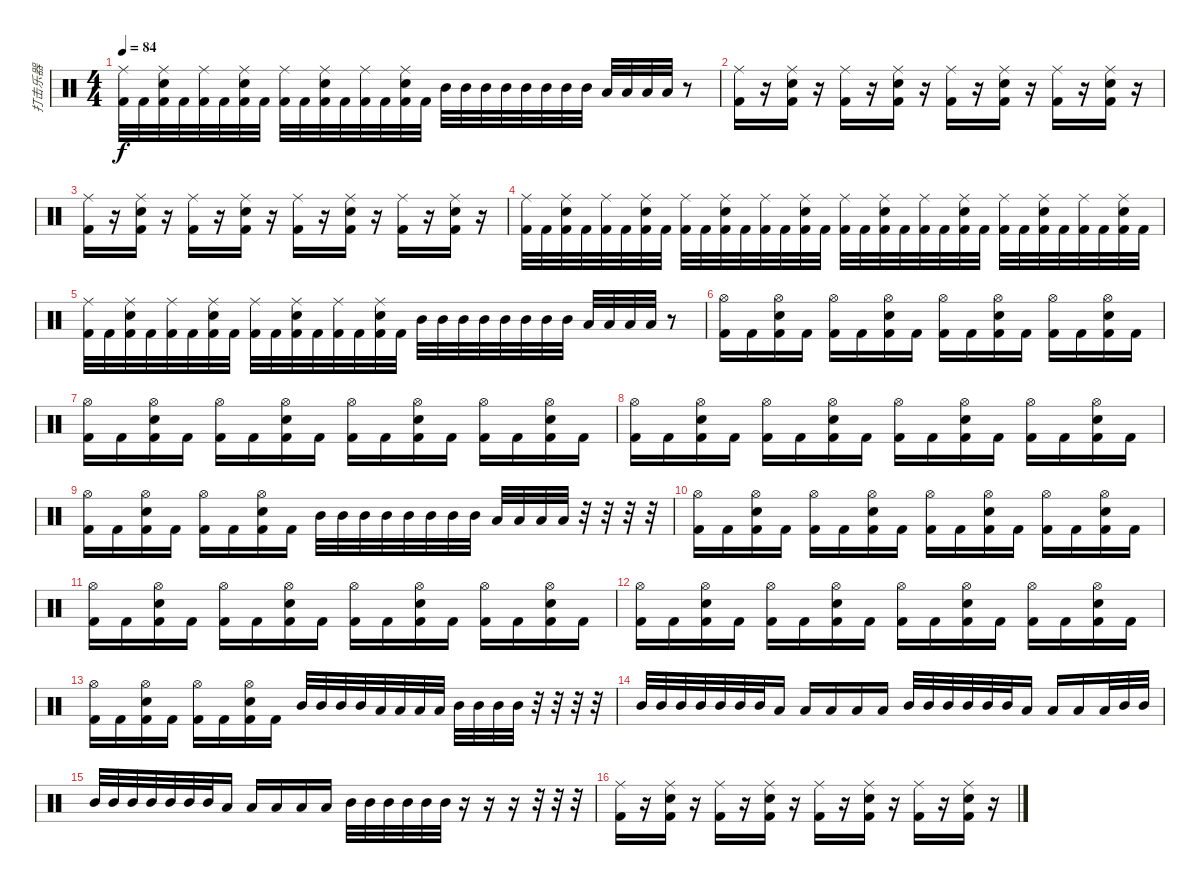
\track ("打击乐器" "打击乐器") {instrument percussion}
\staff {score}
\articulation defaults
\ts (4 4)
\tempo 84
\clef neutral
\ks c
("Ride (middle)" "Kick (hit) 2").32{dy f} "Kick (hit) 2".32 ("Ride (middle)" "Snare (hit) 2" "Kick (hit) 2").32 "Kick (hit) 2".32 ("Ride (middle)" "Kick (hit) 2").32 "Kick (hit) 2".32 ("Ride (middle)" "Snare (hit) 2" "Kick (hit) 2").32 "Kick (hit) 2".32 ("Ride (middle)" "Kick (hit) 2").32 "Kick (hit) 2".32 ("Ride (middle)" "Snare (hit) 2" "Kick (hit) 2").32 "Kick (hit) 2".32 ("Ride (middle)" "Kick (hit) 2").32 "Kick (hit) 2".32 ("Ride (middle)" "Snare (hit) 2" "Kick (hit) 2").32 "Kick (hit) 2".32 "Mid Tom (hit)".32 "Mid Tom (hit)".32 "Mid Tom (hit)".32 "Mid Tom (hit)".32 "Mid Tom (hit)".32 "Mid Tom (hit)".32 "Mid Tom (hit)".32 "Mid Tom (hit)".32 "Low Tom (hit)".32 "Low Tom (hit)".32 "Low Tom (hit)".32 "Low Tom (hit)".32 r.8 |
("Ride (middle)" "Kick (hit) 2").16 r.16 ("Ride (middle)" "Snare (hit) 2" "Kick (hit) 2").16 r.16 ("Ride (middle)" "Kick (hit) 2").16 r.16 ("Ride (middle)" "Snare (hit) 2" "Kick (hit) 2").16 r.16 ("Ride (middle)" "Kick (hit) 2").16 r.16 ("Ride (middle)" "Snare (hit) 2" "Kick (hit) 2").16 r.16 ("Ride (middle)" "Kick (hit) 2").16 r.16 ("Ride (middle)" "Snare (hit) 2" "Kick (hit) 2").16 r.16 |
("Ride (middle)" "Kick (hit) 2").16 r.16 ("Ride (middle)" "Snare (hit) 2" "Kick (hit) 2").16 r.16 ("Ride (middle)" "Kick (hit) 2").16 r.16 ("Ride (middle)" "Snare (hit) 2" "Kick (hit) 2").16 r.16 ("Ride (middle)" "Kick (hit) 2").16 r.16 ("Ride (middle)" "Snare (hit) 2" "Kick (hit) 2").16 r.16 ("Ride (middle)" "Kick (hit) 2").16 r.16 ("Ride (middle)" "Snare (hit) 2" "Kick (hit) 2").16 r.16 |
("Ride (middle)" "Kick (hit) 2").32 "Kick (hit) 2".32 ("Ride (middle)" "Snare (hit) 2" "Kick (hit) 2").32 "Kick (hit) 2".32 ("Ride (middle)" "Kick (hit) 2").32 "Kick (hit) 2".32 ("Ride (middle)" "Snare (hit) 2" "Kick (hit) 2").32 "Kick (hit) 2".32 ("Ride (middle)" "Kick (hit) 2").32 "Kick (hit) 2".32 ("Ride (middle)" "Snare (hit) 2" "Kick (hit) 2").32 "Kick (hit) 2".32 ("Ride (middle)" "Kick (hit) 2").32 "Kick (hit) 2".32 ("Ride (middle)" "Snare (hit) 2" "Kick (hit) 2").32 "Kick (hit) 2".32 ("Ride (middle)" "Kick (hit) 2").32 "Kick (hit) 2".32 ("Ride (middle)" "Snare (hit) 2" "Kick (hit) 2").32 "Kick (hit) 2".32 ("Ride (middle)" "Kick (hit) 2").32 "Kick (hit) 2".32 ("Ride (middle)" "Snare (hit) 2" "Kick (hit) 2").32 "Kick (hit) 2".32 ("Ride (middle)" "Kick (hit) 2").32 "Kick (hit) 2".32 ("Ride (middle)" "Snare (hit) 2" "Kick (hit) 2").32 "Kick (hit) 2".32 ("Ride (middle)" "Kick (hit) 2").32 "Kick (hit) 2".32 ("Ride (middle)" "Snare (hit) 2" "Kick (hit) 2").32 "Kick (hit) 2".32 |
("Ride (middle)" "Kick (hit) 2").32 "Kick (hit) 2".32 ("Ride (middle)" "Snare (hit) 2" "Kick (hit) 2").32 "Kick (hit) 2".32 ("Ride (middle)" "Kick (hit) 2").32 "Kick (hit) 2".32 ("Ride (middle)" "Snare (hit) 2" "Kick (hit) 2").32 "Kick (hit) 2".32 ("Ride (middle)" "Kick (hit) 2").32 "Kick (hit) 2".32 ("Ride (middle)" "Snare (hit) 2" "Kick (hit) 2").32 "Kick (hit) 2".32 ("Ride (middle)" "Kick (hit) 2").32 "Kick (hit) 2".32 ("Ride (middle)" "Snare (hit) 2" "Kick (hit) 2").32 "Kick (hit) 2".32 "Mid Tom (hit)".32 "Mid Tom (hit)".32 "Mid Tom (hit)".32 "Mid Tom (hit)".32 "Mid Tom (hit)".32 "Mid Tom (hit)".32 "Mid Tom (hit)".32 "Mid Tom (hit)".32 "Low Tom (hit)".32 "Low Tom (hit)".32 "Low Tom (hit)".32 "Low Tom (hit)".32 r.8 |
("Hi-Hat (open)" "Kick (hit) 2").16 "Kick (hit) 2".16 ("Hi-Hat (open)" "Snare (hit) 2" "Kick (hit) 2").16 "Kick (hit) 2".16 ("Hi-Hat (open)" "Kick (hit) 2").16 "Kick (hit) 2".16 ("Hi-Hat (open)" "Snare (hit) 2" "Kick (hit) 2").16 "Kick (hit) 2".16 ("Hi-Hat (open)" "Kick (hit) 2").16 "Kick (hit) 2".16 ("Hi-Hat (open)" "Snare (hit) 2" "Kick (hit) 2").16 "Kick (hit) 2".16 ("Hi-Hat (open)" "Kick (hit) 2").16 "Kick (hit) 2".16 ("Hi-Hat (open)" "Snare (hit) 2" "Kick (hit) 2").16 "Kick (hit) 2".16 |
("Hi-Hat (open)" "Kick (hit) 2").16 "Kick (hit) 2".16 ("Hi-Hat (open)" "Snare (hit) 2" "Kick (hit) 2").16 "Kick (hit) 2".16 ("Hi-Hat (open)" "Kick (hit) 2").16 "Kick (hit) 2".16 ("Hi-Hat (open)" "Snare (hit) 2" "Kick (hit) 2").16 "Kick (hit) 2".16 ("Hi-Hat (open)" "Kick (hit) 2").16 "Kick (hit) 2".16 ("Hi-Hat (open)" "Snare (hit) 2" "Kick (hit) 2").16 "Kick (hit) 2".16 ("Hi-Hat (open)" "Kick (hit) 2").16 "Kick (hit) 2".16 ("Hi-Hat (open)" "Snare (hit) 2" "Kick (hit) 2").16 "Kick (hit) 2".16 |
("Hi-Hat (open)" "Kick (hit) 2").16 "Kick (hit) 2".16 ("Hi-Hat (open)" "Snare (hit) 2" "Kick (hit) 2").16 "Kick (hit) 2".16 ("Hi-Hat (open)" "Kick (hit) 2").16 "Kick (hit) 2".16 ("Hi-Hat (open)" "Snare (hit) 2" "Kick (hit) 2").16 "Kick (hit) 2".16 ("Hi-Hat (open)" "Kick (hit) 2").16 "Kick (hit) 2".16 ("Hi-Hat (open)" "Snare (hit) 2" "Kick (hit) 2").16 "Kick (hit) 2".16 ("Hi-Hat (open)" "Kick (hit) 2").16 "Kick (hit) 2".16 ("Hi-Hat (open)" "Snare (hit) 2" "Kick (hit) 2").16 "Kick (hit) 2".16 |
("Hi-Hat (open)" "Kick (hit) 2").16 "Kick (hit) 2".16 ("Hi-Hat (open)" "Snare (hit) 2" "Kick (hit) 2").16 "Kick (hit) 2".16 ("Hi-Hat (open)" "Kick (hit) 2").16 "Kick (hit) 2".16 ("Hi-Hat (open)" "Snare (hit) 2" "Kick (hit) 2").16 "Kick (hit) 2".16 "Mid Tom (hit)".32 "Mid Tom (hit)".32 "Mid Tom (hit)".32 "Mid Tom (hit)".32 "Mid Tom (hit)".32 "Mid Tom (hit)".32 "Mid Tom (hit)".32 "Mid Tom (hit)".32 "Low Tom (hit)".32 "Low Tom (hit)".32 "Low Tom (hit)".32 "Low Tom (hit)".32 r.32 r.32 r.32 r.32 |
("Hi-Hat (open)" "Kick (hit) 2").16 "Kick (hit) 2".16 ("Hi-Hat (open)" "Snare (hit) 2" "Kick (hit) 2").16 "Kick (hit) 2".16 ("Hi-Hat (open)" "Kick (hit) 2").16 "Kick (hit) 2".16 ("Hi-Hat (open)" "Snare (hit) 2" "Kick (hit) 2").16 "Kick (hit) 2".16 ("Hi-Hat (open)" "Kick (hit) 2").16 "Kick (hit) 2".16 ("Hi-Hat (open)" "Snare (hit) 2" "Kick (hit) 2").16 "Kick (hit) 2".16 ("Hi-Hat (open)" "Kick (hit) 2").16 "Kick (hit) 2".16 ("Hi-Hat (open)" "Snare (hit) 2" "Kick (hit) 2").16 "Kick (hit) 2".16 |
("Hi-Hat (open)" "Kick (hit) 2").16 "Kick (hit) 2".16 ("Hi-Hat (open)" "Snare (hit) 2" "Kick (hit) 2").16 "Kick (hit) 2".16 ("Hi-Hat (open)" "Kick (hit) 2").16 "Kick (hit) 2".16 ("Hi-Hat (open)" "Snare (hit) 2" "Kick (hit) 2").16 "Kick (hit) 2".16 ("Hi-Hat (open)" "Kick (hit) 2").16 "Kick (hit) 2".16 ("Hi-Hat (open)" "Snare (hit) 2" "Kick (hit) 2").16 "Kick (hit) 2".16 ("Hi-Hat (open)" "Kick (hit) 2").16 "Kick (hit) 2".16 ("Hi-Hat (open)" "Snare (hit) 2" "Kick (hit) 2").16 "Kick (hit) 2".16 |
("Hi-Hat (open)" "Kick (hit) 2").16 "Kick (hit) 2".16 ("Hi-Hat (open)" "Snare (hit) 2" "Kick (hit) 2").16 "Kick (hit) 2".16 ("Hi-Hat (open)" "Kick (hit) 2").16 "Kick (hit) 2".16 ("Hi-Hat (open)" "Snare (hit) 2" "Kick (hit) 2").16 "Kick (hit) 2".16 ("Hi-Hat (open)" "Kick (hit) 2").16 "Kick (hit) 2".16 ("Hi-Hat (open)" "Snare (hit) 2" "Kick (hit) 2").16 "Kick (hit) 2".16 ("Hi-Hat (open)" "Kick (hit) 2").16 "Kick (hit) 2".16 ("Hi-Hat (open)" "Snare (hit) 2" "Kick (hit) 2").16 "Kick (hit) 2".16 |
("Hi-Hat (open)" "Kick (hit) 2").16 "Kick (hit) 2".16 ("Hi-Hat (open)" "Snare (hit) 2" "Kick (hit) 2").16 "Kick (hit) 2".16 ("Hi-Hat (open)" "Kick (hit) 2").16 "Kick (hit) 2".16 ("Hi-Hat (open)" "Snare (hit) 2" "Kick (hit) 2").16 "Kick (hit) 2".16 "Mid Tom (hit)".32 "Mid Tom (hit)".32 "Mid Tom (hit)".32 "Mid Tom (hit)".32 "Low Tom (hit)".32 "Low Tom (hit)".32 "Low Tom (hit)".32 "Low Tom (hit)".32 "Mid Tom (hit)".32 "Mid Tom (hit)".32 "Mid Tom (hit)".32 "Mid Tom (hit)".32 r.32 r.32 r.32 r.32 |
"Mid Tom (hit)".32 "Mid Tom (hit)".32 "Mid Tom (hit)".32 "Mid Tom (hit)".32 "Mid Tom (hit)".32 "Mid Tom (hit)".32 "Mid Tom (hit)".32 "Low Tom (hit)".16 "Low Tom (hit)".16 "Low Tom (hit)".16 "Low Tom (hit)".16 "Low Tom (hit)".16 "Mid Tom (hit)".32 "Mid Tom (hit)".32 "Mid Tom (hit)".32 "Mid Tom (hit)".32 "Mid Tom (hit)".32 "Mid Tom (hit)".32 "Low Tom (hit)".16 "Low Tom (hit)".16 "Low Tom (hit)".16 "Low Tom (hit)".32 "Mid Tom (hit)".32 "Mid Tom (hit)".32 |
"Mid Tom (hit)".32 "Mid Tom (hit)".32 "Mid Tom (hit)".32 "Mid Tom (hit)".32 "Mid Tom (hit)".32 "Mid Tom (hit)".32 "Mid Tom (hit)".32 "Low Tom (hit)".16 "Low Tom (hit)".16 "Low Tom (hit)".16 "Low Tom (hit)".16 "Low Tom (hit)".16 "Mid Tom (hit)".32 "Mid Tom (hit)".32 "Mid Tom (hit)".32 "Mid Tom (hit)".32 "Mid Tom (hit)".32 "Mid Tom (hit)".32 r.16 r.16 r.16 r.32 r.32 r.32 |
("Ride (middle)" "Kick (hit) 2").16 r.16 ("Ride (middle)" "Snare (hit) 2" "Kick (hit) 2").16 r.16 ("Ride (middle)" "Kick (hit) 2").16 r.16 ("Ride (middle)" "Snare (hit) 2" "Kick (hit) 2").16 r.16 ("Ride (middle)" "Kick (hit) 2").16 r.16 ("Ride (middle)" "Snare (hit) 2" "Kick (hit) 2").16 r.16 ("Ride (middle)" "Kick (hit) 2").16 r.16 ("Ride (middle)" "Snare (hit) 2" "Kick (hit) 2").16 r.16
